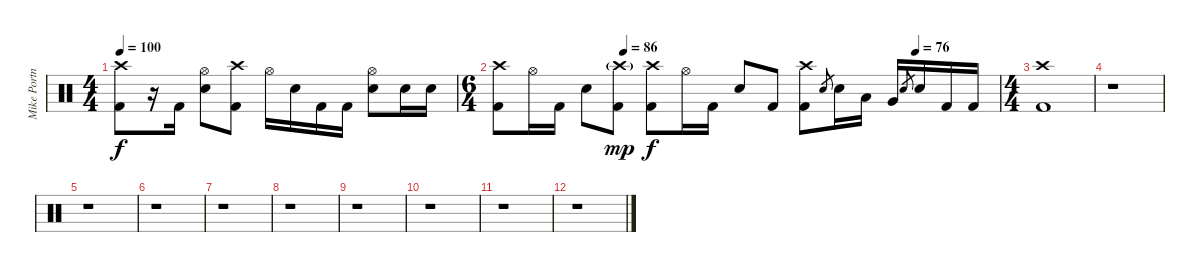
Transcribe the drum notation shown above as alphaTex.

\track ("Mike Portnoy" "Mike Portn") {instrument percussion}
\staff {score}
\articulation defaults
\ts (4 4)
\tempo 100
\clef neutral
\ks c
("Crash high (hit)" "Kick (hit) 2").8{dy f} r.16 "Kick (hit) 2".16 ("Hi-Hat (open)" "Electric Snare (hit)").8 ("Crash high (hit)" "Kick (hit) 2").8 "Hi-Hat (open)".16 "Electric Snare (hit)".16 "Kick (hit) 2".16 "Kick (hit) 2".16 ("Hi-Hat (open)" "Electric Snare (hit)").8 "Electric Snare (hit)".16 "Electric Snare (hit)".16 |
\ts (6 4)
\tempo (86 0.25)
\tempo (76 0.8333333333333334)
("Crash high (hit)" "Kick (hit) 2").8 "Hi-Hat (open)".16 "Kick (hit) 2".16 "Electric Snare (hit)".8 ("Crash high (hit)"{g} "Kick (hit) 2").8{dy mp} ("Crash high (hit)" "Kick (hit) 2").8{dy f} "Hi-Hat (open)".16 "Kick (hit) 2".16 "Electric Snare (hit)".8 "Kick (hit) 2".8 ("Crash high (hit)" "Kick (hit) 2").8 "Electric Snare (hit)".8{gr} "Electric Snare (hit)".16 "Low Tom (hit)".16 "Very Low Tom (hit)".16 "Electric Snare (hit)".8{gr} "Electric Snare (hit)".16 "Kick (hit) 2".16 "Kick (hit) 2".16 |
\ts (4 4)
("Crash high (hit)" "Kick (hit) 2").1 |
r.1 |
r.1 |
r.1 |
r.1 |
r.1 |
r.1 |
r.1 |
r.1 |
r.1
